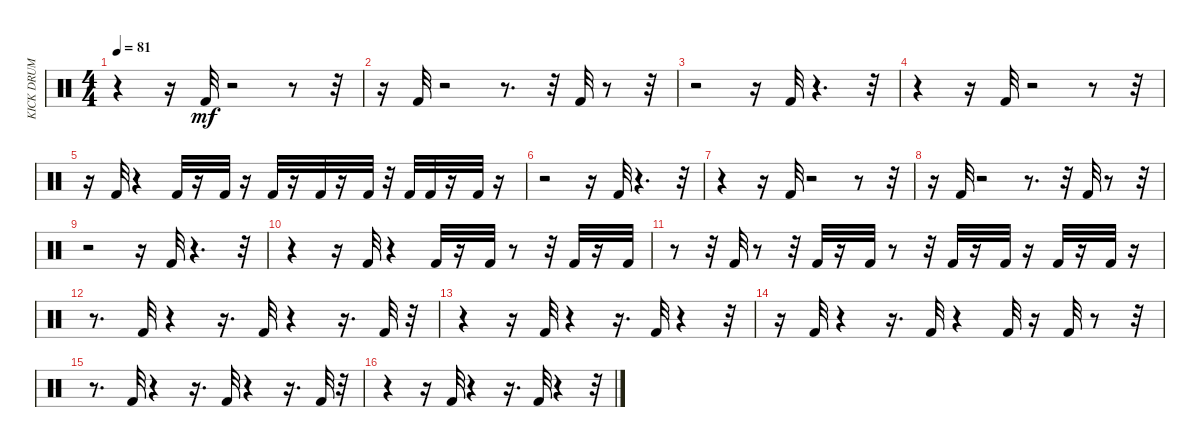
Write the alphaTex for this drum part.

\track ("KICK DRUM LOW." "KICK DRUM ") {instrument percussion}
\staff {score}
\articulation defaults
\ts (4 4)
\tempo 81
\clef neutral
\ks c
r.4{dy mf} r.16 "Kick (hit) 2".32 r.2 r.8 r.32 |
r.16 "Kick (hit) 2".32 r.2 r.8{d} r.32 "Kick (hit) 2".32 r.8 r.32 |
r.2 r.16 "Kick (hit) 2".32 r.4{d} r.32 |
r.4 r.16 "Kick (hit) 2".32 r.2 r.8 r.32 |
r.16 "Kick (hit) 2".32 r.4 "Kick (hit) 2".32 r.16 "Kick (hit) 2".32 r.16 "Kick (hit) 2".32 r.16 "Kick (hit) 2".32 r.16 "Kick (hit) 2".32 r.32 "Kick (hit) 2".32 "Kick (hit) 2".32 r.16 "Kick (hit) 2".32 r.16 |
r.2 r.16 "Kick (hit) 2".32 r.4{d} r.32 |
r.4 r.16 "Kick (hit) 2".32 r.2 r.8 r.32 |
r.16 "Kick (hit) 2".32 r.2 r.8{d} r.32 "Kick (hit) 2".32 r.8 r.32 |
r.2 r.16 "Kick (hit) 2".32 r.4{d} r.32 |
r.4 r.16 "Kick (hit) 2".32 r.4 "Kick (hit) 2".32 r.16 "Kick (hit) 2".32 r.8 r.32 "Kick (hit) 2".32 r.16 "Kick (hit) 2".32 |
r.8 r.32 "Kick (hit) 2".32 r.8 r.32 "Kick (hit) 2".32 r.16 "Kick (hit) 2".32 r.8 r.32 "Kick (hit) 2".32 r.16 "Kick (hit) 2".32 r.16 "Kick (hit) 2".32 r.16 "Kick (hit) 2".32 r.16 |
r.8{d} "Kick (hit) 2".32 r.4 r.16{d} "Kick (hit) 2".32 r.4 r.16{d} "Kick (hit) 2".32 r.32 |
r.4 r.16 "Kick (hit) 2".32 r.4 r.16{d} "Kick (hit) 2".32 r.4 r.32 |
r.16 "Kick (hit) 2".32 r.4 r.16{d} "Kick (hit) 2".32 r.4 "Kick (hit) 2".32 r.16 "Kick (hit) 2".32 r.8 r.32 |
r.8{d} "Kick (hit) 2".32 r.4 r.16{d} "Kick (hit) 2".32 r.4 r.16{d} "Kick (hit) 2".32 r.32 |
r.4 r.16 "Kick (hit) 2".32 r.4 r.16{d} "Kick (hit) 2".32 r.4 r.32
